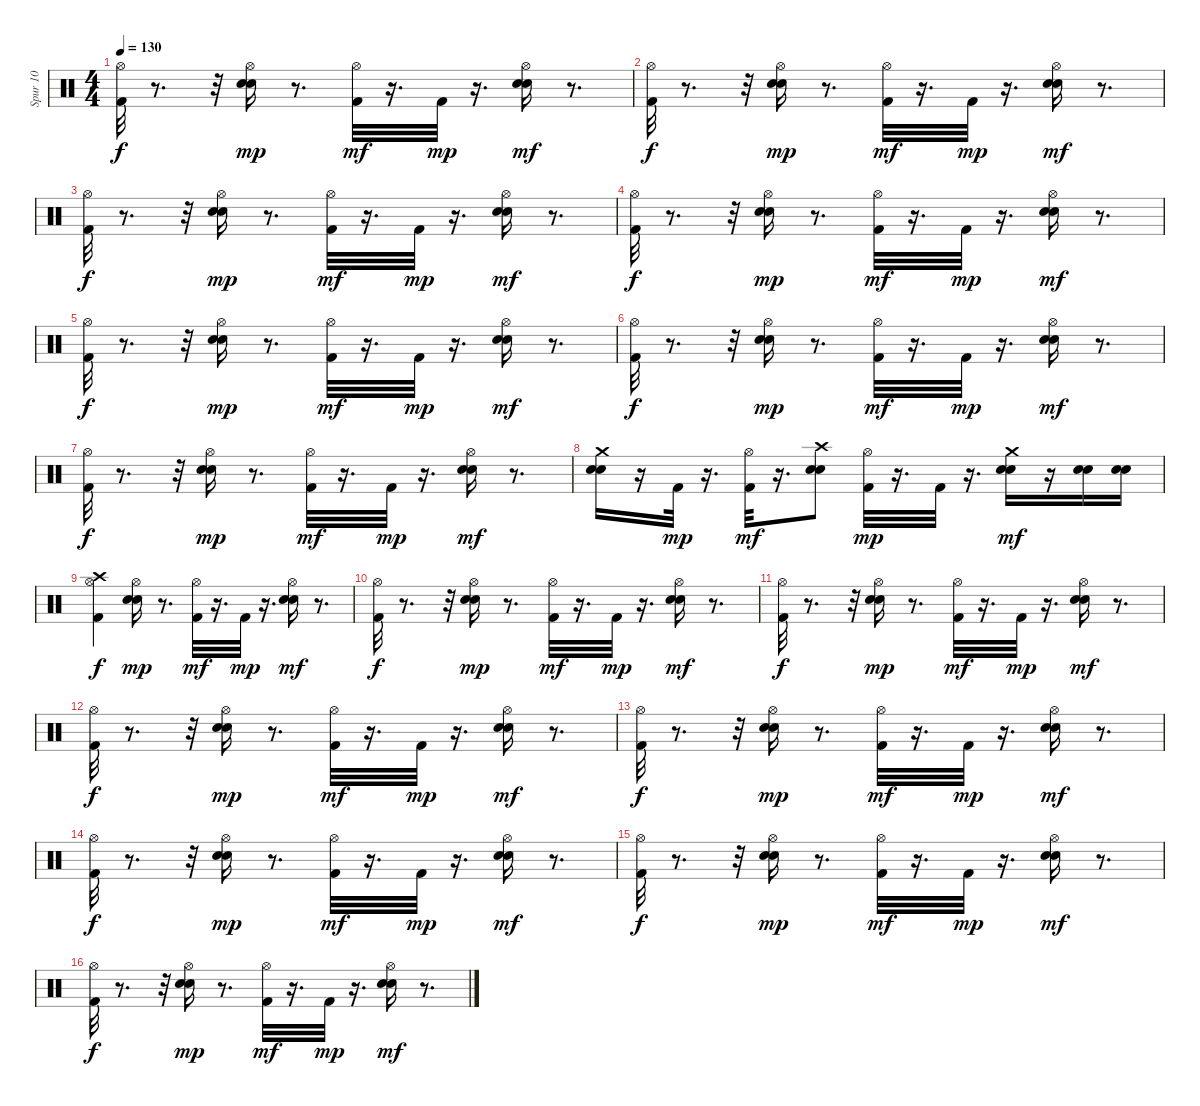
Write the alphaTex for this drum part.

\track ("Spur 10" "Spur 10") {instrument percussion}
\staff {score}
\articulation defaults
\ts (4 4)
\tempo 130
\clef neutral
\ks c
("Kick (hit) 2" "Hi-Hat (open)").32{dy f} r.8{d} r.32 ("Electric Snare (hit)" "Snare (hit) 2" "Hi-Hat (open)").16{dy mp} r.8{d} ("Kick (hit) 2" "Hi-Hat (open)").32{dy mf} r.16{d} "Kick (hit) 2".32{dy mp} r.16{d} ("Electric Snare (hit)" "Snare (hit) 2" "Hi-Hat (open)").16{dy mf} r.8{d} |
("Kick (hit) 2" "Hi-Hat (open)").32{dy f} r.8{d} r.32 ("Electric Snare (hit)" "Snare (hit) 2" "Hi-Hat (open)").16{dy mp} r.8{d} ("Kick (hit) 2" "Hi-Hat (open)").32{dy mf} r.16{d} "Kick (hit) 2".32{dy mp} r.16{d} ("Electric Snare (hit)" "Snare (hit) 2" "Hi-Hat (open)").16{dy mf} r.8{d} |
("Kick (hit) 2" "Hi-Hat (open)").32{dy f} r.8{d} r.32 ("Electric Snare (hit)" "Snare (hit) 2" "Hi-Hat (open)").16{dy mp} r.8{d} ("Kick (hit) 2" "Hi-Hat (open)").32{dy mf} r.16{d} "Kick (hit) 2".32{dy mp} r.16{d} ("Electric Snare (hit)" "Snare (hit) 2" "Hi-Hat (open)").16{dy mf} r.8{d} |
("Kick (hit) 2" "Hi-Hat (open)").32{dy f} r.8{d} r.32 ("Electric Snare (hit)" "Snare (hit) 2" "Hi-Hat (open)").16{dy mp} r.8{d} ("Kick (hit) 2" "Hi-Hat (open)").32{dy mf} r.16{d} "Kick (hit) 2".32{dy mp} r.16{d} ("Electric Snare (hit)" "Snare (hit) 2" "Hi-Hat (open)").16{dy mf} r.8{d} |
("Kick (hit) 2" "Hi-Hat (open)").32{dy f} r.8{d} r.32 ("Electric Snare (hit)" "Snare (hit) 2" "Hi-Hat (open)").16{dy mp} r.8{d} ("Kick (hit) 2" "Hi-Hat (open)").32{dy mf} r.16{d} "Kick (hit) 2".32{dy mp} r.16{d} ("Electric Snare (hit)" "Snare (hit) 2" "Hi-Hat (open)").16{dy mf} r.8{d} |
("Kick (hit) 2" "Hi-Hat (open)").32{dy f} r.8{d} r.32 ("Electric Snare (hit)" "Snare (hit) 2" "Hi-Hat (open)").16{dy mp} r.8{d} ("Kick (hit) 2" "Hi-Hat (open)").32{dy mf} r.16{d} "Kick (hit) 2".32{dy mp} r.16{d} ("Electric Snare (hit)" "Snare (hit) 2" "Hi-Hat (open)").16{dy mf} r.8{d} |
("Kick (hit) 2" "Hi-Hat (open)").32{dy f} r.8{d} r.32 ("Electric Snare (hit)" "Snare (hit) 2" "Hi-Hat (open)").16{dy mp} r.8{d} ("Kick (hit) 2" "Hi-Hat (open)").32{dy mf} r.16{d} "Kick (hit) 2".32{dy mp} r.16{d} ("Electric Snare (hit)" "Snare (hit) 2" "Hi-Hat (open)").16{dy mf} r.8{d} |
("Electric Snare (hit)" "Snare (hit) 2" "Crash medium (hit)").16 r.16 "Kick (hit) 2".32{dy mp} r.16{d} ("Kick (hit) 2" "Hi-Hat (open)").32{dy mf} r.16{d} ("Electric Snare (hit)" "Snare (hit) 2" "Crash high (hit)").8 ("Kick (hit) 2" "Hi-Hat (open)").32{dy mp} r.16{d} "Kick (hit) 2".32 r.16{d} ("Electric Snare (hit)" "Snare (hit) 2" "Crash medium (hit)").16{dy mf} r.16 ("Electric Snare (hit)" "Snare (hit) 2").16 ("Electric Snare (hit)" "Snare (hit) 2").16 |
("Crash high (hit)" "Kick (hit) 2" "Hi-Hat (open)").4{dy f} ("Electric Snare (hit)" "Snare (hit) 2" "Hi-Hat (open)").16{dy mp} r.8{d} ("Kick (hit) 2" "Hi-Hat (open)").32{dy mf} r.16{d} "Kick (hit) 2".32{dy mp} r.16{d} ("Electric Snare (hit)" "Snare (hit) 2" "Hi-Hat (open)").16{dy mf} r.8{d} |
("Kick (hit) 2" "Hi-Hat (open)").32{dy f} r.8{d} r.32 ("Electric Snare (hit)" "Snare (hit) 2" "Hi-Hat (open)").16{dy mp} r.8{d} ("Kick (hit) 2" "Hi-Hat (open)").32{dy mf} r.16{d} "Kick (hit) 2".32{dy mp} r.16{d} ("Electric Snare (hit)" "Snare (hit) 2" "Hi-Hat (open)").16{dy mf} r.8{d} |
("Kick (hit) 2" "Hi-Hat (open)").32{dy f} r.8{d} r.32 ("Electric Snare (hit)" "Snare (hit) 2" "Hi-Hat (open)").16{dy mp} r.8{d} ("Kick (hit) 2" "Hi-Hat (open)").32{dy mf} r.16{d} "Kick (hit) 2".32{dy mp} r.16{d} ("Electric Snare (hit)" "Snare (hit) 2" "Hi-Hat (open)").16{dy mf} r.8{d} |
("Kick (hit) 2" "Hi-Hat (open)").32{dy f} r.8{d} r.32 ("Electric Snare (hit)" "Snare (hit) 2" "Hi-Hat (open)").16{dy mp} r.8{d} ("Kick (hit) 2" "Hi-Hat (open)").32{dy mf} r.16{d} "Kick (hit) 2".32{dy mp} r.16{d} ("Electric Snare (hit)" "Snare (hit) 2" "Hi-Hat (open)").16{dy mf} r.8{d} |
("Kick (hit) 2" "Hi-Hat (open)").32{dy f} r.8{d} r.32 ("Electric Snare (hit)" "Snare (hit) 2" "Hi-Hat (open)").16{dy mp} r.8{d} ("Kick (hit) 2" "Hi-Hat (open)").32{dy mf} r.16{d} "Kick (hit) 2".32{dy mp} r.16{d} ("Electric Snare (hit)" "Snare (hit) 2" "Hi-Hat (open)").16{dy mf} r.8{d} |
("Kick (hit) 2" "Hi-Hat (open)").32{dy f} r.8{d} r.32 ("Electric Snare (hit)" "Snare (hit) 2" "Hi-Hat (open)").16{dy mp} r.8{d} ("Kick (hit) 2" "Hi-Hat (open)").32{dy mf} r.16{d} "Kick (hit) 2".32{dy mp} r.16{d} ("Electric Snare (hit)" "Snare (hit) 2" "Hi-Hat (open)").16{dy mf} r.8{d} |
("Kick (hit) 2" "Hi-Hat (open)").32{dy f} r.8{d} r.32 ("Electric Snare (hit)" "Snare (hit) 2" "Hi-Hat (open)").16{dy mp} r.8{d} ("Kick (hit) 2" "Hi-Hat (open)").32{dy mf} r.16{d} "Kick (hit) 2".32{dy mp} r.16{d} ("Electric Snare (hit)" "Snare (hit) 2" "Hi-Hat (open)").16{dy mf} r.8{d} |
("Kick (hit) 2" "Hi-Hat (open)").32{dy f} r.8{d} r.32 ("Electric Snare (hit)" "Snare (hit) 2" "Hi-Hat (open)").16{dy mp} r.8{d} ("Kick (hit) 2" "Hi-Hat (open)").32{dy mf} r.16{d} "Kick (hit) 2".32{dy mp} r.16{d} ("Electric Snare (hit)" "Snare (hit) 2" "Hi-Hat (open)").16{dy mf} r.8{d}
